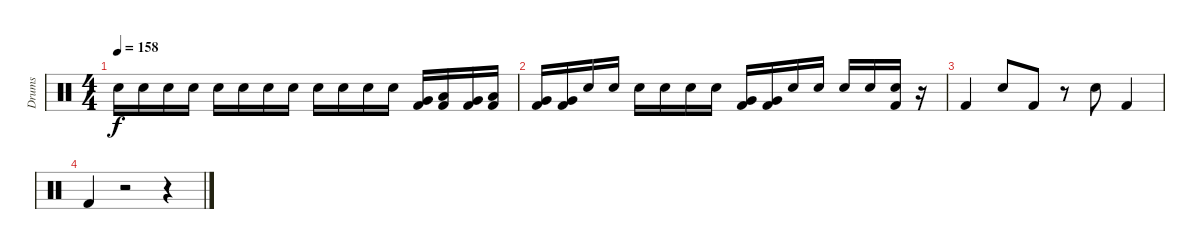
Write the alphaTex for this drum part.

\track ("Drums" "Drums") {instrument percussion}
\staff {score}
\articulation defaults
\ts (4 4)
\tempo 158
\clef neutral
\ks c "Snare (hit) 2".16{dy f} "Snare (hit) 2".16 "Snare (hit) 2".16 "Snare (hit) 2".16 "Snare (hit) 2".16 "Snare (hit) 2".16 "Snare (hit) 2".16 "Snare (hit) 2".16 "Snare (hit) 2".16 "Snare (hit) 2".16 "Snare (hit) 2".16 "Snare (hit) 2".16
("Kick (hit) 2" "Very Low Tom (hit)").16 ("Kick (hit) 2" "Low Tom (hit)").16 ("Kick (hit) 2" "Very Low Tom (hit)").16 ("Kick (hit) 2" "Low Tom (hit)").16 |
("Kick (hit) 2" "Very Low Tom (hit)").16 ("Kick (hit) 2" "Very Low Tom (hit)").16 "Snare (hit) 2".16 "Snare (hit) 2".16 "Snare (hit) 2".16 "Snare (hit) 2".16 "Snare (hit) 2".16 "Snare (hit) 2".16 ("Kick (hit) 2" "Very Low Tom (hit)").16 ("Kick (hit) 2" "Very Low Tom (hit)").16 "Snare (hit) 2".16 "Snare (hit) 2".16 "Snare (hit) 2".16 "Snare (hit) 2".16 ("Kick (hit) 2" "Snare (hit) 2").16 r.16 |
"Kick (hit) 2".4 "Snare (hit) 2".8 "Kick (hit) 2".8 r.8 "Snare (hit) 2".8 "Kick (hit) 2".4 |
"Kick (hit) 2".4 r.2 r.4
